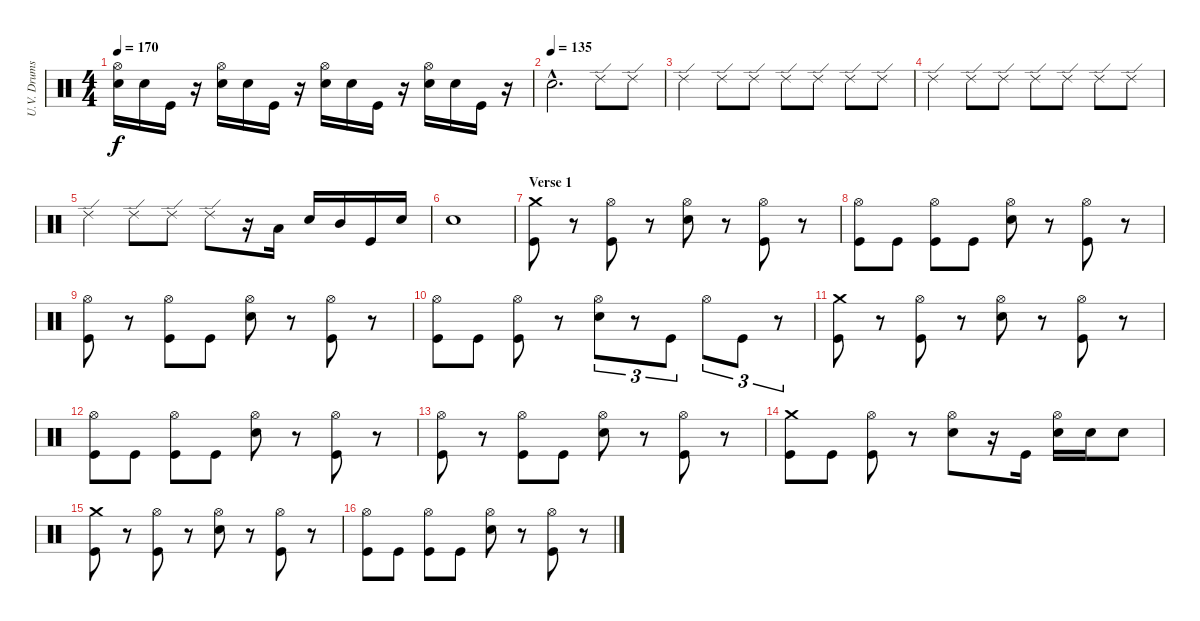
\track ("U.V. Drums" "U.V. Drums") {instrument percussion}
\staff {score}
\articulation defaults
\ts (4 4)
\tempo 170
\clef neutral
\ks c
("Hi-Hat (open)" "Electric Snare (hit)").16{dy f} "Electric Snare (hit)".16 "Kick (hit)".16 r.16 ("Hi-Hat (open)" "Electric Snare (hit)").16 "Electric Snare (hit)".16 "Kick (hit)".16 r.16 ("Hi-Hat (open)" "Electric Snare (hit)").16 "Electric Snare (hit)".16 "Kick (hit)".16 r.16 ("Hi-Hat (open)" "Electric Snare (hit)").16 "Electric Snare (hit)".16 "Kick (hit)".16 r.16 |
\tempo (135)
"Electric Snare (hit)"{hac}.2{d} "Ride (edge) 2".8 "Ride (edge) 2".8 |
"Ride (edge) 2".4 "Ride (edge) 2".8 "Ride (edge) 2".8 "Ride (edge) 2".8 "Ride (edge) 2".8 "Ride (edge) 2".8 "Ride (edge) 2".8 |
"Ride (edge) 2".4 "Ride (edge) 2".8 "Ride (edge) 2".8 "Ride (edge) 2".8 "Ride (edge) 2".8 "Ride (edge) 2".8 "Ride (edge) 2".8 |
"Ride (edge) 2".4 "Ride (edge) 2".8 "Ride (edge) 2".8 "Ride (edge) 2".8 r.16 "Low Tom (hit)".16 "Electric Snare (hit)".16 "Mid Tom (hit)".16 "Kick (hit)".16 "Electric Snare (hit)".16 |
"Electric Snare (hit)".1 |
\section ("" "Verse 1")
("Crash medium (hit)" "Kick (hit)").8 r.8 ("Hi-Hat (open)" "Kick (hit)").8 r.8 ("Hi-Hat (open)" "Electric Snare (hit)").8 r.8 ("Hi-Hat (open)" "Kick (hit)").8 r.8 |
("Hi-Hat (open)" "Kick (hit)").8 "Kick (hit)".8 ("Hi-Hat (open)" "Kick (hit)").8 "Kick (hit)".8 ("Hi-Hat (open)" "Electric Snare (hit)").8 r.8 ("Hi-Hat (open)" "Kick (hit)").8 r.8 |
("Hi-Hat (open)" "Kick (hit)").8 r.8 ("Hi-Hat (open)" "Kick (hit)").8 "Kick (hit)".8 ("Hi-Hat (open)" "Electric Snare (hit)").8 r.8 ("Hi-Hat (open)" "Kick (hit)").8 r.8 |
("Hi-Hat (open)" "Kick (hit)").8 "Kick (hit)".8 ("Hi-Hat (open)" "Kick (hit)").8 r.8 ("Hi-Hat (open)" "Electric Snare (hit)").8{tu (3 2)} r.8{tu (3 2)} "Kick (hit)".8{tu (3 2)} "Hi-Hat (open)".8{tu (3 2)} "Kick (hit)".8{tu (3 2)} r.8{tu (3 2)} |
("Crash medium (hit)" "Kick (hit)").8 r.8 ("Hi-Hat (open)" "Kick (hit)").8 r.8 ("Hi-Hat (open)" "Electric Snare (hit)").8 r.8 ("Hi-Hat (open)" "Kick (hit)").8 r.8 |
("Hi-Hat (open)" "Kick (hit)").8 "Kick (hit)".8 ("Hi-Hat (open)" "Kick (hit)").8 "Kick (hit)".8 ("Hi-Hat (open)" "Electric Snare (hit)").8 r.8 ("Hi-Hat (open)" "Kick (hit)").8 r.8 |
("Hi-Hat (open)" "Kick (hit)").8 r.8 ("Hi-Hat (open)" "Kick (hit)").8 "Kick (hit)".8 ("Hi-Hat (open)" "Electric Snare (hit)").8 r.8 ("Hi-Hat (open)" "Kick (hit)").8 r.8 |
("Crash medium (hit)" "Kick (hit)").8 "Kick (hit)".8 ("Hi-Hat (open)" "Kick (hit)").8 r.8 ("Hi-Hat (open)" "Electric Snare (hit)").8 r.16 "Kick (hit)".16 ("Hi-Hat (open)" "Electric Snare (hit)").16 "Electric Snare (hit)".16 "Electric Snare (hit)".8 |
("Crash medium (hit)" "Kick (hit)").8 r.8 ("Hi-Hat (open)" "Kick (hit)").8 r.8 ("Hi-Hat (open)" "Electric Snare (hit)").8 r.8 ("Hi-Hat (open)" "Kick (hit)").8 r.8 |
("Hi-Hat (open)" "Kick (hit)").8 "Kick (hit)".8 ("Hi-Hat (open)" "Kick (hit)").8 "Kick (hit)".8 ("Hi-Hat (open)" "Electric Snare (hit)").8 r.8 ("Hi-Hat (open)" "Kick (hit)").8 r.8
